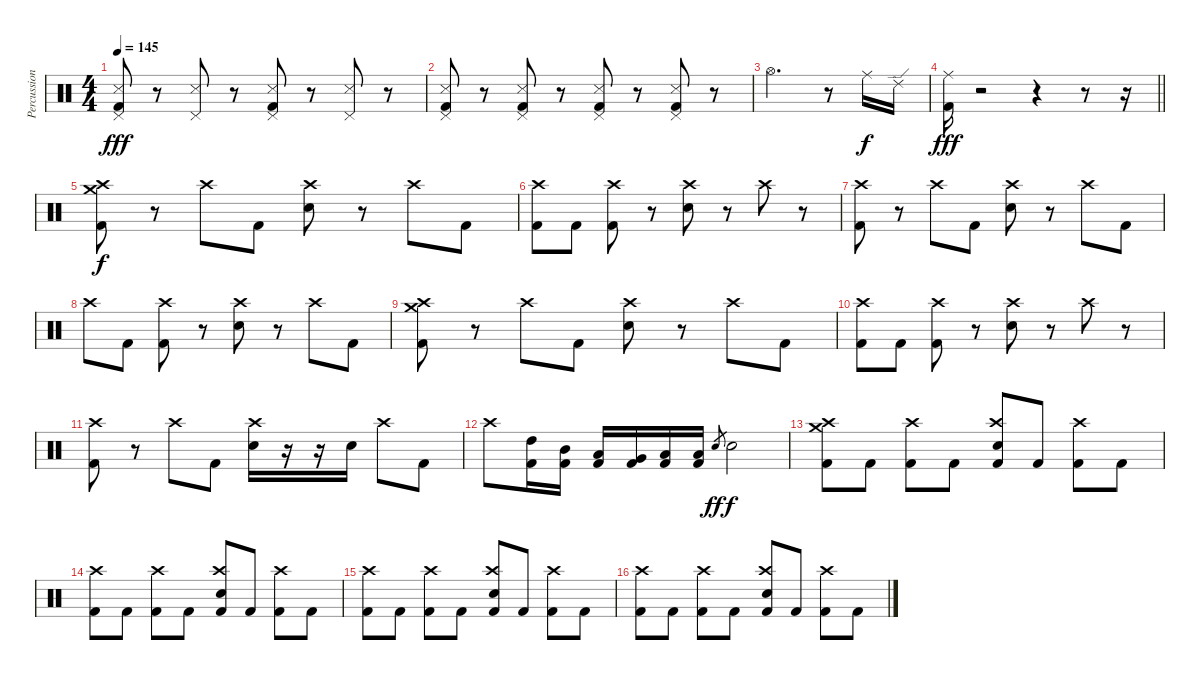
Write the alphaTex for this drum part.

\track ("Percussions" "Percussion") {instrument percussion}
\staff {score}
\articulation defaults
\ts (4 4)
\tempo 145
\clef neutral
\ks c
("Pedal Hi-Hat (hit)" "Snare (side stick) 3" "Kick (hit) 2").8{dy fff} r.8 ("Pedal Hi-Hat (hit)" "Snare (side stick) 3").8 r.8 ("Pedal Hi-Hat (hit)" "Snare (side stick) 3" "Kick (hit) 2").8 r.8 ("Pedal Hi-Hat (hit)" "Snare (side stick) 3").8 r.8 |
("Pedal Hi-Hat (hit)" "Snare (side stick) 3" "Kick (hit) 2").8 r.8 ("Pedal Hi-Hat (hit)" "Snare (side stick) 3" "Kick (hit) 2").8 r.8 ("Pedal Hi-Hat (hit)" "Snare (side stick) 3" "Kick (hit) 2").8 r.8 ("Pedal Hi-Hat (hit)" "Snare (side stick) 3" "Kick (hit) 2").8 r.8 |
"Hi-Hat (open)".2{d} r.8 "Ride (middle)".16{dy f} "Ride (edge) 2".16 |
\barLineRight lightlight
("Ride (middle)" "Kick (hit) 2").16{dy fff} r.2 r.4 r.8 r.16 |
\section ("" "")
("Crash medium (hit)" "Crash high (hit)" "Kick (hit) 2").8{dy f} r.8 "Crash high (hit)".8 "Kick (hit) 2".8 ("Crash high (hit)" "Electric Snare (hit)").8 r.8 "Crash high (hit)".8 "Kick (hit) 2".8 |
("Crash high (hit)" "Kick (hit) 2").8 "Kick (hit) 2".8 ("Crash high (hit)" "Kick (hit) 2").8 r.8 ("Crash high (hit)" "Electric Snare (hit)").8 r.8 "Crash high (hit)".8 r.8 |
("Crash high (hit)" "Kick (hit) 2").8 r.8 "Crash high (hit)".8 "Kick (hit) 2".8 ("Crash high (hit)" "Electric Snare (hit)").8 r.8 "Crash high (hit)".8 "Kick (hit) 2".8 |
"Crash high (hit)".8 "Kick (hit) 2".8 ("Crash high (hit)" "Kick (hit) 2").8 r.8 ("Crash high (hit)" "Electric Snare (hit)").8 r.8 "Crash high (hit)".8 "Kick (hit) 2".8 |
("Crash medium (hit)" "Crash high (hit)" "Kick (hit) 2").8 r.8 "Crash high (hit)".8 "Kick (hit) 2".8 ("Crash high (hit)" "Electric Snare (hit)").8 r.8 "Crash high (hit)".8 "Kick (hit) 2".8 |
("Crash high (hit)" "Kick (hit) 2").8 "Kick (hit) 2".8 ("Crash high (hit)" "Kick (hit) 2").8 r.8 ("Crash high (hit)" "Electric Snare (hit)").8 r.8 "Crash high (hit)".8 r.8 |
("Crash high (hit)" "Kick (hit) 2").8 r.8 "Crash high (hit)".8 "Kick (hit) 2".8 ("Crash high (hit)" "Electric Snare (hit)").16 r.16 r.16 "Electric Snare (hit)".16 "Crash high (hit)".8 "Kick (hit) 2".8 |
"Crash high (hit)".8 ("High Tom (hit)" "Kick (hit) 2").16 ("Mid Tom (hit)" "Kick (hit) 2").16 ("Low Tom (hit)" "Kick (hit) 2").16 ("Very Low Tom (hit)" "Kick (hit) 2").16 ("Low Floor Tom (hit)" "Kick (hit) 2").16 ("Low Floor Tom (hit)" "Kick (hit) 2").16 "Snare (hit) 2".8{gr dy ff} "Electric Snare (hit)".2{dy f} |
("Crash medium (hit)" "Crash high (hit)" "Kick (hit) 2").8 "Kick (hit) 2".8 ("Crash high (hit)" "Kick (hit) 2").8 "Kick (hit) 2".8 ("Crash high (hit)" "Electric Snare (hit)" "Kick (hit) 2").8 "Kick (hit) 2".8 ("Crash high (hit)" "Kick (hit) 2").8 "Kick (hit) 2".8 |
("Crash high (hit)" "Kick (hit) 2").8 "Kick (hit) 2".8 ("Crash high (hit)" "Kick (hit) 2").8 "Kick (hit) 2".8 ("Crash high (hit)" "Electric Snare (hit)" "Kick (hit) 2").8 "Kick (hit) 2".8 ("Crash high (hit)" "Kick (hit) 2").8 "Kick (hit) 2".8 |
("Crash high (hit)" "Kick (hit) 2").8 "Kick (hit) 2".8 ("Crash high (hit)" "Kick (hit) 2").8 "Kick (hit) 2".8 ("Crash high (hit)" "Electric Snare (hit)" "Kick (hit) 2").8 "Kick (hit) 2".8 ("Crash high (hit)" "Kick (hit) 2").8 "Kick (hit) 2".8 |
("Crash high (hit)" "Kick (hit) 2").8 "Kick (hit) 2".8 ("Crash high (hit)" "Kick (hit) 2").8 "Kick (hit) 2".8 ("Crash high (hit)" "Electric Snare (hit)" "Kick (hit) 2").8 "Kick (hit) 2".8 ("Crash high (hit)" "Kick (hit) 2").8 "Kick (hit) 2".8
